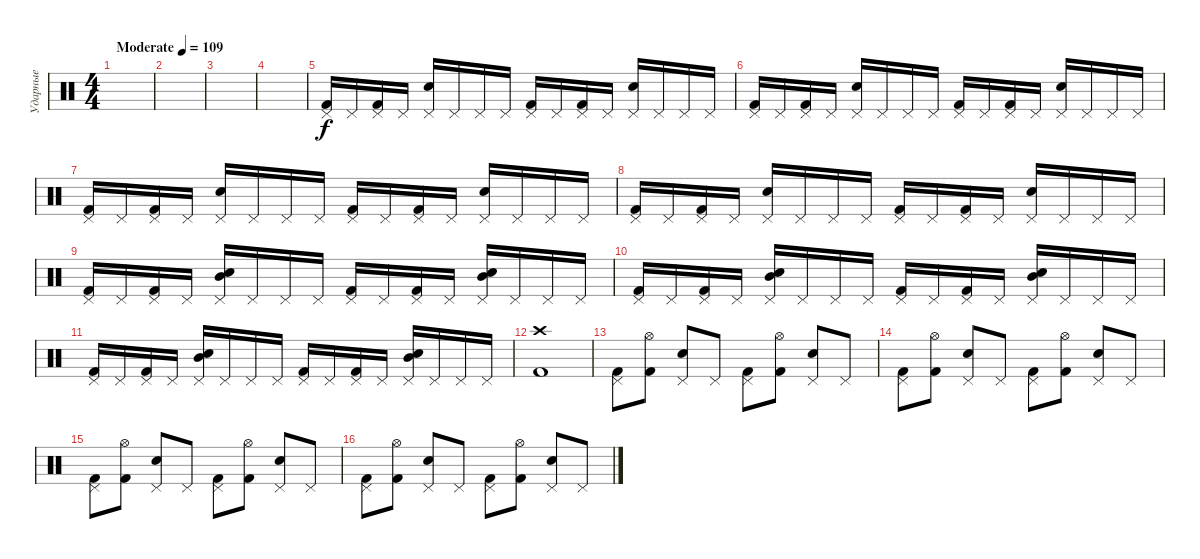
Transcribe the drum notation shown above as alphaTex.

\track ("Ударные" "Ударные") {instrument percussion}
\staff {score}
\articulation defaults
\ts (4 4)
\tempo (109 "Moderate")
\clef neutral
\ks c
|
|
|
|
("Kick (hit) 2" "Pedal Hi-Hat (hit)").16 "Pedal Hi-Hat (hit)".16 ("Kick (hit) 2" "Pedal Hi-Hat (hit)").16 "Pedal Hi-Hat (hit)".16 ("Hand Clap (hit)" "Pedal Hi-Hat (hit)").16 "Pedal Hi-Hat (hit)".16 "Pedal Hi-Hat (hit)".16 "Pedal Hi-Hat (hit)".16 ("Kick (hit) 2" "Pedal Hi-Hat (hit)").16 "Pedal Hi-Hat (hit)".16 ("Kick (hit) 2" "Pedal Hi-Hat (hit)").16 "Pedal Hi-Hat (hit)".16 ("Hand Clap (hit)" "Pedal Hi-Hat (hit)").16 "Pedal Hi-Hat (hit)".16 "Pedal Hi-Hat (hit)".16 "Pedal Hi-Hat (hit)".16 |
("Kick (hit) 2" "Pedal Hi-Hat (hit)").16 "Pedal Hi-Hat (hit)".16 ("Kick (hit) 2" "Pedal Hi-Hat (hit)").16 "Pedal Hi-Hat (hit)".16 ("Hand Clap (hit)" "Pedal Hi-Hat (hit)").16 "Pedal Hi-Hat (hit)".16 "Pedal Hi-Hat (hit)".16 "Pedal Hi-Hat (hit)".16 ("Kick (hit) 2" "Pedal Hi-Hat (hit)").16 "Pedal Hi-Hat (hit)".16 ("Kick (hit) 2" "Pedal Hi-Hat (hit)").16 "Pedal Hi-Hat (hit)".16 ("Hand Clap (hit)" "Pedal Hi-Hat (hit)").16 "Pedal Hi-Hat (hit)".16 "Pedal Hi-Hat (hit)".16 "Pedal Hi-Hat (hit)".16 |
("Kick (hit) 2" "Pedal Hi-Hat (hit)").16 "Pedal Hi-Hat (hit)".16 ("Kick (hit) 2" "Pedal Hi-Hat (hit)").16 "Pedal Hi-Hat (hit)".16 ("Hand Clap (hit)" "Pedal Hi-Hat (hit)").16 "Pedal Hi-Hat (hit)".16 "Pedal Hi-Hat (hit)".16 "Pedal Hi-Hat (hit)".16 ("Kick (hit) 2" "Pedal Hi-Hat (hit)").16 "Pedal Hi-Hat (hit)".16 ("Kick (hit) 2" "Pedal Hi-Hat (hit)").16 "Pedal Hi-Hat (hit)".16 ("Hand Clap (hit)" "Pedal Hi-Hat (hit)").16 "Pedal Hi-Hat (hit)".16 "Pedal Hi-Hat (hit)".16 "Pedal Hi-Hat (hit)".16 |
("Kick (hit) 2" "Pedal Hi-Hat (hit)").16 "Pedal Hi-Hat (hit)".16 ("Kick (hit) 2" "Pedal Hi-Hat (hit)").16 "Pedal Hi-Hat (hit)".16 ("Hand Clap (hit)" "Pedal Hi-Hat (hit)").16 "Pedal Hi-Hat (hit)".16 "Pedal Hi-Hat (hit)".16 "Pedal Hi-Hat (hit)".16 ("Kick (hit) 2" "Pedal Hi-Hat (hit)").16 "Pedal Hi-Hat (hit)".16 ("Kick (hit) 2" "Pedal Hi-Hat (hit)").16 "Pedal Hi-Hat (hit)".16 ("Hand Clap (hit)" "Pedal Hi-Hat (hit)").16 "Pedal Hi-Hat (hit)".16 "Pedal Hi-Hat (hit)".16 "Pedal Hi-Hat (hit)".16 |
("Kick (hit) 2" "Pedal Hi-Hat (hit)").16 "Pedal Hi-Hat (hit)".16 ("Kick (hit) 2" "Pedal Hi-Hat (hit)").16 "Pedal Hi-Hat (hit)".16 ("Snare (hit) 2" "Pedal Hi-Hat (hit)" "Mid Tom (hit)").16 "Pedal Hi-Hat (hit)".16 "Pedal Hi-Hat (hit)".16 "Pedal Hi-Hat (hit)".16 ("Kick (hit) 2" "Pedal Hi-Hat (hit)").16 "Pedal Hi-Hat (hit)".16 ("Kick (hit) 2" "Pedal Hi-Hat (hit)").16 "Pedal Hi-Hat (hit)".16 ("Snare (hit) 2" "Pedal Hi-Hat (hit)" "Mid Tom (hit)").16 "Pedal Hi-Hat (hit)".16 "Pedal Hi-Hat (hit)".16 "Pedal Hi-Hat (hit)".16 |
("Kick (hit) 2" "Pedal Hi-Hat (hit)").16 "Pedal Hi-Hat (hit)".16 ("Kick (hit) 2" "Pedal Hi-Hat (hit)").16 "Pedal Hi-Hat (hit)".16 ("Snare (hit) 2" "Pedal Hi-Hat (hit)" "Mid Tom (hit)").16 "Pedal Hi-Hat (hit)".16 "Pedal Hi-Hat (hit)".16 "Pedal Hi-Hat (hit)".16 ("Kick (hit) 2" "Pedal Hi-Hat (hit)").16 "Pedal Hi-Hat (hit)".16 ("Kick (hit) 2" "Pedal Hi-Hat (hit)").16 "Pedal Hi-Hat (hit)".16 ("Snare (hit) 2" "Pedal Hi-Hat (hit)" "Mid Tom (hit)").16 "Pedal Hi-Hat (hit)".16 "Pedal Hi-Hat (hit)".16 "Pedal Hi-Hat (hit)".16 |
("Kick (hit) 2" "Pedal Hi-Hat (hit)").16 "Pedal Hi-Hat (hit)".16 ("Kick (hit) 2" "Pedal Hi-Hat (hit)").16 "Pedal Hi-Hat (hit)".16 ("Snare (hit) 2" "Pedal Hi-Hat (hit)" "Mid Tom (hit)").16 "Pedal Hi-Hat (hit)".16 "Pedal Hi-Hat (hit)".16 "Pedal Hi-Hat (hit)".16 ("Kick (hit) 2" "Pedal Hi-Hat (hit)").16 "Pedal Hi-Hat (hit)".16 ("Kick (hit) 2" "Pedal Hi-Hat (hit)").16 "Pedal Hi-Hat (hit)".16 ("Snare (hit) 2" "Pedal Hi-Hat (hit)" "Mid Tom (hit)").16 "Pedal Hi-Hat (hit)".16 "Pedal Hi-Hat (hit)".16 "Pedal Hi-Hat (hit)".16 |
("Kick (hit) 2" "Crash high (hit)").1 |
("Kick (hit) 2" "Pedal Hi-Hat (hit)").8 ("Kick (hit) 2" "Hi-Hat (open)").8 ("Pedal Hi-Hat (hit)" "Snare (hit) 2").8 "Pedal Hi-Hat (hit)".8 ("Kick (hit) 2" "Pedal Hi-Hat (hit)").8 ("Kick (hit) 2" "Hi-Hat (open)").8 ("Pedal Hi-Hat (hit)" "Snare (hit) 2").8 "Pedal Hi-Hat (hit)".8 |
("Kick (hit) 2" "Pedal Hi-Hat (hit)").8 ("Kick (hit) 2" "Hi-Hat (open)").8 ("Pedal Hi-Hat (hit)" "Snare (hit) 2").8 "Pedal Hi-Hat (hit)".8 ("Kick (hit) 2" "Pedal Hi-Hat (hit)").8 ("Kick (hit) 2" "Hi-Hat (open)").8 ("Pedal Hi-Hat (hit)" "Snare (hit) 2").8 "Pedal Hi-Hat (hit)".8 |
("Kick (hit) 2" "Pedal Hi-Hat (hit)").8 ("Kick (hit) 2" "Hi-Hat (open)").8 ("Pedal Hi-Hat (hit)" "Snare (hit) 2").8 "Pedal Hi-Hat (hit)".8 ("Kick (hit) 2" "Pedal Hi-Hat (hit)").8 ("Kick (hit) 2" "Hi-Hat (open)").8 ("Pedal Hi-Hat (hit)" "Snare (hit) 2").8 "Pedal Hi-Hat (hit)".8 |
("Kick (hit) 2" "Pedal Hi-Hat (hit)").8 ("Kick (hit) 2" "Hi-Hat (open)").8 ("Pedal Hi-Hat (hit)" "Snare (hit) 2").8 "Pedal Hi-Hat (hit)".8 ("Kick (hit) 2" "Pedal Hi-Hat (hit)").8 ("Kick (hit) 2" "Hi-Hat (open)").8 ("Pedal Hi-Hat (hit)" "Snare (hit) 2").8 "Pedal Hi-Hat (hit)".8
